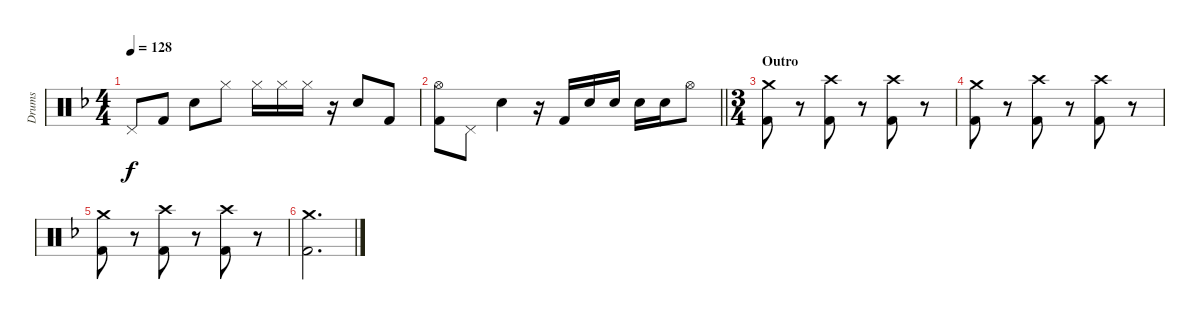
\track ("Drums" "Drums") {instrument percussion}
\staff {score}
\articulation defaults
\ts (4 4)
\tempo 128
\clef neutral
\ks f "Pedal Hi-Hat (hit)".8{dy f} "Kick (hit) 2".8 "Electric Snare (hit)".8 "Hi-Hat (closed)".8 "Hi-Hat (closed)".16 "Hi-Hat (closed)".16 "Hi-Hat (closed)".16
r.16 "Electric Snare (hit)".8 "Kick (hit) 2".8 |
\barLineRight lightlight
("Hi-Hat (open)" "Kick (hit) 2").8 "Pedal Hi-Hat (hit)".8 "Electric Snare (hit)".4 r.16 "Kick (hit) 2".16 "Electric Snare (hit)".16 "Electric Snare (hit)".16 "Electric Snare (hit)".16 "Electric Snare (hit)".16 "Hi-Hat (open)".8 |
\ts (3 4)
\section ("" "Outro")
("Crash medium (hit)" "Kick (hit) 2").8 r.8 ("Crash high (hit)" "Kick (hit) 2").8 r.8 ("Crash high (hit)" "Kick (hit) 2").8 r.8 |
("Crash medium (hit)" "Kick (hit) 2").8 r.8 ("Crash high (hit)" "Kick (hit) 2").8 r.8 ("Crash high (hit)" "Kick (hit) 2").8 r.8 |
("Crash medium (hit)" "Kick (hit) 2").8 r.8 ("Crash high (hit)" "Kick (hit) 2").8 r.8 ("Crash high (hit)" "Kick (hit) 2").8 r.8 |
("Crash medium (hit)" "Kick (hit) 2").2{d}
